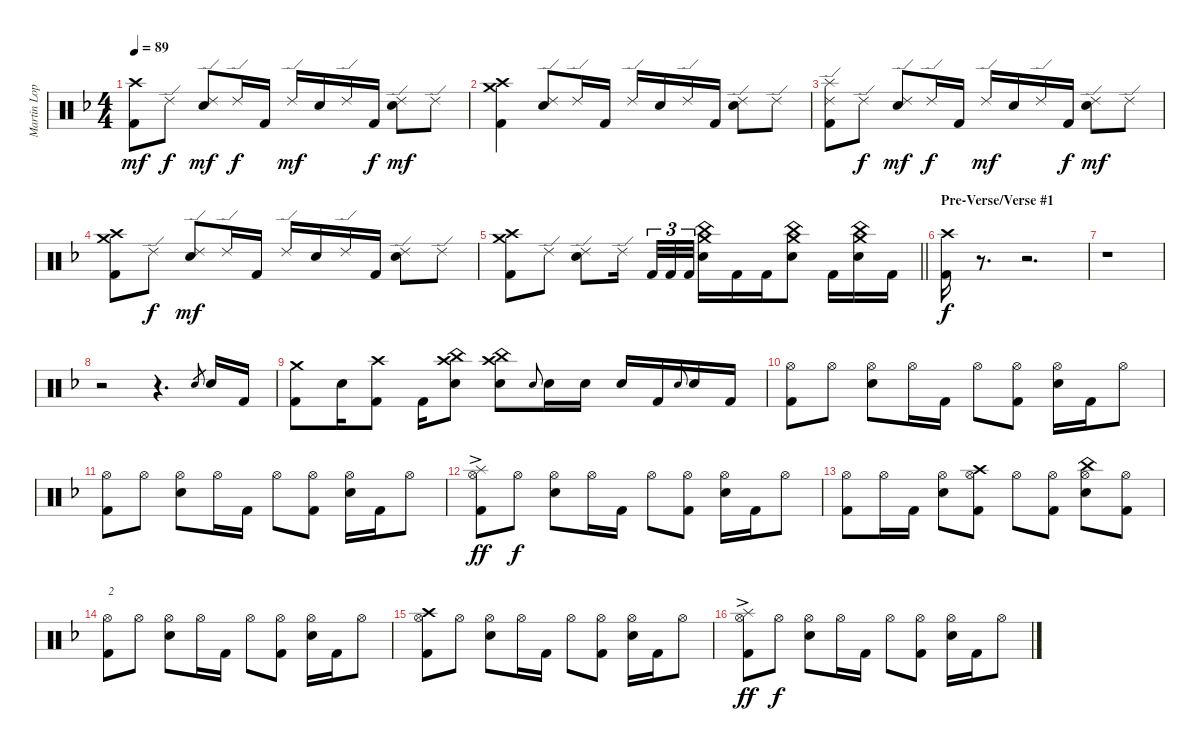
\track ("Martin Lopez - Drums" "Martin Lop") {instrument percussion}
\staff {score}
\articulation defaults
\ts (4 4)
\tempo 89
\clef neutral
\ks f
("Crash high (hit)" "Kick (hit) 2").8{dy mf} "Ride (edge) 2".8{dy f} ("Ride (edge) 2" "Electric Snare (hit)").8{dy mf} "Ride (edge) 2".16{dy f} "Kick (hit) 2".16 "Ride (edge) 2".16{dy mf} "Electric Snare (hit)".16 "Ride (edge) 2".16 "Kick (hit) 2".16{dy f} ("Ride (edge) 2" "Electric Snare (hit)").8{dy mf} "Ride (edge) 2".8 |
("Crash high (hit)" "Crash medium (hit)" "Kick (hit) 2").4 ("Ride (edge) 2" "Electric Snare (hit)").8 "Ride (edge) 2".16 "Kick (hit) 2".16 "Ride (edge) 2".16 "Electric Snare (hit)".16 "Ride (edge) 2".16 "Kick (hit) 2".16 ("Ride (edge) 2" "Electric Snare (hit)").8 "Ride (edge) 2".8 |
("Splash (hit)" "Ride (edge) 2" "Kick (hit) 2").8 "Ride (edge) 2".8{dy f} ("Ride (edge) 2" "Electric Snare (hit)").8{dy mf} "Ride (edge) 2".16{dy f} "Kick (hit) 2".16 "Ride (edge) 2".16{dy mf} "Electric Snare (hit)".16 "Ride (edge) 2".16 "Kick (hit) 2".16{dy f} ("Ride (edge) 2" "Electric Snare (hit)").8{dy mf} "Ride (edge) 2".8 |
("Crash high (hit)" "Crash medium (hit)" "Kick (hit) 2").8 "Ride (edge) 2".8{dy f} ("Ride (edge) 2" "Electric Snare (hit)").8{dy mf} "Ride (edge) 2".16 "Kick (hit) 2".16 "Ride (edge) 2".16 "Electric Snare (hit)".16 "Ride (edge) 2".16 "Kick (hit) 2".16 ("Ride (edge) 2" "Electric Snare (hit)").8 "Ride (edge) 2".8 |
\barLineRight lightlight
("Crash high (hit)" "Crash medium (hit)" "Kick (hit) 2").8 "Ride (edge) 2".8 ("Ride (edge) 2" "Electric Snare (hit)").8 "Ride (edge) 2".16{beam splitsecondary} "Kick (hit) 2".32{tu (3 2)} "Kick (hit) 2".32{tu (3 2)} "Kick (hit) 2".32{tu (3 2)} ("Crash medium (hit)" "China (hit)" "Electric Snare (hit)").16 "Kick (hit) 2".16 "Kick (hit) 2".16 ("Crash medium (hit)" "China (hit)" "Electric Snare (hit)").8 "Kick (hit) 2".16 ("Crash medium (hit)" "China (hit)" "Electric Snare (hit)").16 "Kick (hit) 2".16 |
\section ("" "Pre-Verse/Verse #1")
("Crash high (hit)" "Kick (hit) 2").16{dy f} r.8{d volume 0} r.2{d} |
r.1 |
r.2{volume 16} r.4{d} "Electric Snare (hit)".8{gr} "Electric Snare (hit)".16 "Kick (hit) 2".16 |
("Crash medium (hit)" "Kick (hit) 2").8 "Electric Snare (hit)".16 ("Crash high (hit)" "Kick (hit) 2").8 "Kick (hit) 2".16 ("China (hit)" "Crash high (hit)" "Electric Snare (hit)").8 ("China (hit)" "Crash high (hit)" "Electric Snare (hit)").8 "Electric Snare (hit)".8{gr onbeat} "Electric Snare (hit)".16 "Electric Snare (hit)".16 "Electric Snare (hit)".16 "Kick (hit) 2".16 "Electric Snare (hit)".8{gr onbeat} "Electric Snare (hit)".16 "Kick (hit) 2".16 |
("Hi-Hat (open)" "Kick (hit) 2").8 "Hi-Hat (open)".8 ("Hi-Hat (open)" "Electric Snare (hit)").8 "Hi-Hat (open)".16 "Kick (hit) 2".16 "Hi-Hat (open)".8 ("Hi-Hat (open)" "Kick (hit) 2").8 ("Hi-Hat (open)" "Electric Snare (hit)").16 "Kick (hit) 2".16 "Hi-Hat (open)".8 |
("Hi-Hat (open)" "Kick (hit) 2").8 "Hi-Hat (open)".8 ("Hi-Hat (open)" "Electric Snare (hit)").8 "Hi-Hat (open)".16 "Kick (hit) 2".16 "Hi-Hat (open)".8 ("Hi-Hat (open)" "Kick (hit) 2").8 ("Hi-Hat (open)" "Electric Snare (hit)").16 "Kick (hit) 2".16 "Hi-Hat (open)".8 |
("Splash (hit)"{ac} "Hi-Hat (open)" "Kick (hit) 2").8{dy ff} "Hi-Hat (open)".8{dy f} ("Hi-Hat (open)" "Electric Snare (hit)").8 "Hi-Hat (open)".16 "Kick (hit) 2".16 "Hi-Hat (open)".8 ("Hi-Hat (open)" "Kick (hit) 2").8 ("Hi-Hat (open)" "Electric Snare (hit)").16 "Kick (hit) 2".16 "Hi-Hat (open)".8 |
("Hi-Hat (open)" "Kick (hit) 2").8 "Hi-Hat (open)".16 "Kick (hit) 2".16 ("Hi-Hat (open)" "Electric Snare (hit)").8 ("Crash high (hit)" "Hi-Hat (open)" "Kick (hit) 2").8 "Hi-Hat (open)".8 ("Hi-Hat (open)" "Kick (hit) 2").8 ("China (hit)" "Hi-Hat (open)" "Electric Snare (hit)").8 ("Hi-Hat (open)" "Kick (hit) 2").8 |
("Hi-Hat (open)" "Kick (hit) 2").8{txt "2"} "Hi-Hat (open)".8 ("Hi-Hat (open)" "Electric Snare (hit)").8 "Hi-Hat (open)".16 "Kick (hit) 2".16 "Hi-Hat (open)".8 ("Hi-Hat (open)" "Kick (hit) 2").8 ("Hi-Hat (open)" "Electric Snare (hit)").16 "Kick (hit) 2".16 "Hi-Hat (open)".8 |
("Crash high (hit)" "Hi-Hat (open)" "Kick (hit) 2").8 "Hi-Hat (open)".8 ("Hi-Hat (open)" "Electric Snare (hit)").8 "Hi-Hat (open)".16 "Kick (hit) 2".16 "Hi-Hat (open)".8 ("Hi-Hat (open)" "Kick (hit) 2").8 ("Hi-Hat (open)" "Electric Snare (hit)").16 "Kick (hit) 2".16 "Hi-Hat (open)".8 |
("Splash (hit)"{ac} "Hi-Hat (open)" "Kick (hit) 2").8{dy ff} "Hi-Hat (open)".8{dy f} ("Hi-Hat (open)" "Electric Snare (hit)").8 "Hi-Hat (open)".16 "Kick (hit) 2".16 "Hi-Hat (open)".8 ("Hi-Hat (open)" "Kick (hit) 2").8 ("Hi-Hat (open)" "Electric Snare (hit)").16 "Kick (hit) 2".16 "Hi-Hat (open)".8
